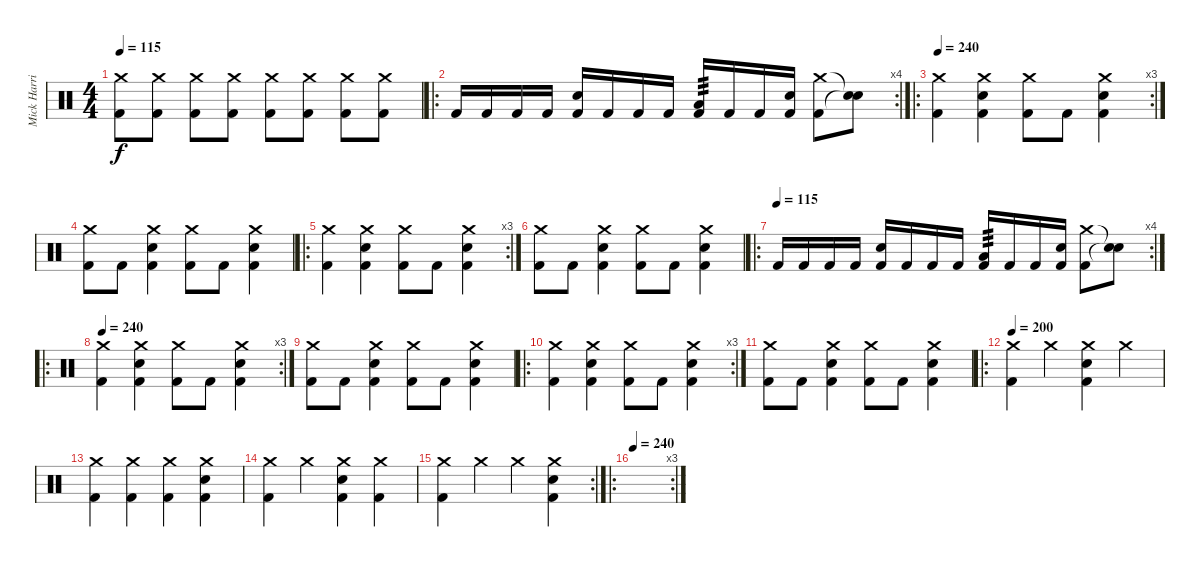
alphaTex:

\track ("Mick Harris" "Mick Harri") {instrument percussion}
\staff {score}
\articulation defaults
\ts (4 4)
\tempo 115
\clef neutral
\ks c
("Crash medium (hit)" "Kick (hit) 2").8{dy f} ("Crash medium (hit)" "Kick (hit) 2").8 ("Crash medium (hit)" "Kick (hit) 2").8 ("Crash medium (hit)" "Kick (hit) 2").8 ("Crash medium (hit)" "Kick (hit) 2").8 ("Crash medium (hit)" "Kick (hit) 2").8 ("Crash medium (hit)" "Kick (hit) 2").8 ("Crash medium (hit)" "Kick (hit) 2").8 |
\ro
\rc 4 "Kick (hit) 2".16 "Kick (hit) 2".16 "Kick (hit) 2".16 "Kick (hit) 2".16
("Snare (hit) 2" "Kick (hit) 2").16 "Kick (hit) 2".16 "Kick (hit) 2".16 "Kick (hit) 2".16 ("Low Floor Tom (hit)" "Kick (hit) 2").16{tp 3} "Kick (hit) 2".16 "Kick (hit) 2".16 ("Snare (hit) 2" "Kick (hit) 2").16 ("Crash medium (hit)" "Kick (hit) 2").8 ("Snare (hit)"{t} "Snare (hit)"{t}).8 |
\ro
\rc 3
\tempo 240
("Crash medium (hit)" "Kick (hit) 2").4 ("Crash medium (hit)" "Snare (hit) 2" "Kick (hit) 2").4 ("Crash medium (hit)" "Kick (hit) 2").8 "Kick (hit) 2".8 ("Crash medium (hit)" "Snare (hit) 2" "Kick (hit) 2").4 |
("Crash medium (hit)" "Kick (hit) 2").8 "Kick (hit) 2".8 ("Crash medium (hit)" "Snare (hit) 2" "Kick (hit) 2").4 ("Crash medium (hit)" "Kick (hit) 2").8 "Kick (hit) 2".8 ("Crash medium (hit)" "Snare (hit) 2" "Kick (hit) 2").4 |
\ro
\rc 3
("Crash medium (hit)" "Kick (hit) 2").4 ("Crash medium (hit)" "Snare (hit) 2" "Kick (hit) 2").4 ("Crash medium (hit)" "Kick (hit) 2").8 "Kick (hit) 2".8 ("Crash medium (hit)" "Snare (hit) 2" "Kick (hit) 2").4 |
("Crash medium (hit)" "Kick (hit) 2").8 "Kick (hit) 2".8 ("Crash medium (hit)" "Snare (hit) 2" "Kick (hit) 2").4 ("Crash medium (hit)" "Kick (hit) 2").8 "Kick (hit) 2".8 ("Crash medium (hit)" "Snare (hit) 2" "Kick (hit) 2").4 |
\ro
\rc 4
\tempo (115)
"Kick (hit) 2".16 "Kick (hit) 2".16 "Kick (hit) 2".16 "Kick (hit) 2".16 ("Snare (hit) 2" "Kick (hit) 2").16 "Kick (hit) 2".16 "Kick (hit) 2".16 "Kick (hit) 2".16 ("Low Floor Tom (hit)" "Kick (hit) 2").16{tp 3} "Kick (hit) 2".16 "Kick (hit) 2".16 ("Snare (hit) 2" "Kick (hit) 2").16 ("Crash medium (hit)" "Kick (hit) 2").8 ("Snare (hit)"{t} "Snare (hit)"{t}).8 |
\ro
\rc 3
\tempo 240
("Crash medium (hit)" "Kick (hit) 2").4 ("Crash medium (hit)" "Snare (hit) 2" "Kick (hit) 2").4 ("Crash medium (hit)" "Kick (hit) 2").8 "Kick (hit) 2".8 ("Crash medium (hit)" "Snare (hit) 2" "Kick (hit) 2").4 |
("Crash medium (hit)" "Kick (hit) 2").8 "Kick (hit) 2".8 ("Crash medium (hit)" "Snare (hit) 2" "Kick (hit) 2").4 ("Crash medium (hit)" "Kick (hit) 2").8 "Kick (hit) 2".8 ("Crash medium (hit)" "Snare (hit) 2" "Kick (hit) 2").4 |
\ro
\rc 3
("Crash medium (hit)" "Kick (hit) 2").4 ("Crash medium (hit)" "Snare (hit) 2" "Kick (hit) 2").4 ("Crash medium (hit)" "Kick (hit) 2").8 "Kick (hit) 2".8 ("Crash medium (hit)" "Snare (hit) 2" "Kick (hit) 2").4 |
("Crash medium (hit)" "Kick (hit) 2").8 "Kick (hit) 2".8 ("Crash medium (hit)" "Snare (hit) 2" "Kick (hit) 2").4 ("Crash medium (hit)" "Kick (hit) 2").8 "Kick (hit) 2".8 ("Crash medium (hit)" "Snare (hit) 2" "Kick (hit) 2").4 |
\ro
\tempo 200
("Crash medium (hit)" "Kick (hit) 2").4 "Crash medium (hit)".4 ("Crash medium (hit)" "Snare (hit) 2" "Kick (hit) 2").4 "Crash medium (hit)".4 |
("Crash medium (hit)" "Kick (hit) 2").4 ("Crash medium (hit)" "Kick (hit) 2").4 ("Crash medium (hit)" "Kick (hit) 2").4 ("Crash medium (hit)" "Snare (hit) 2" "Kick (hit) 2").4 |
("Crash medium (hit)" "Kick (hit) 2").4 "Crash medium (hit)".4 ("Crash medium (hit)" "Snare (hit) 2" "Kick (hit) 2").4 ("Crash medium (hit)" "Kick (hit) 2").4 |
\rc 2
("Crash medium (hit)" "Kick (hit) 2").4 "Crash medium (hit)".4 "Crash medium (hit)".4 ("Crash medium (hit)" "Snare (hit) 2" "Kick (hit) 2").4 |
\ro
\rc 3
\tempo 240
